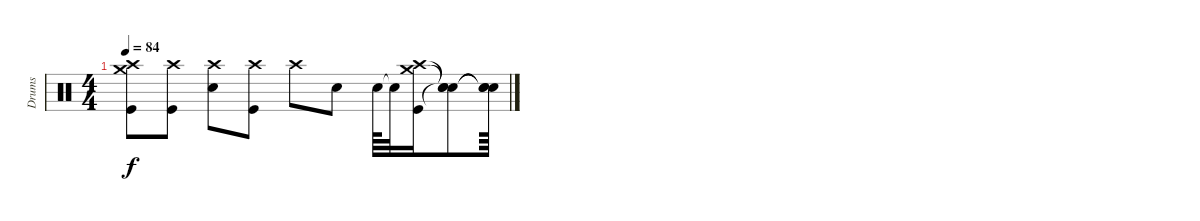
\track ("Drums" "Drums") {instrument percussion}
\staff {score}
\articulation defaults
\ts (4 4)
\tempo 84
\clef neutral
\ks c
("Crash medium (hit)" "Crash high (hit)" "Kick (hit)").8{dy f} ("Crash high (hit)" "Kick (hit)").8 ("Crash high (hit)" "Snare (hit) 2").8 ("Crash high (hit)" "Kick (hit)").8 "Crash high (hit)".8 "Snare (hit) 2".8 "Snare (hit) 2".64 "Snare (hit)"{t}.32 ("Crash medium (hit)" "Crash high (hit)" "Kick (hit)").16 ("Snare (hit)"{t} "Snare (hit)"{t} "Snare (hit)"{t}).8 ("Snare (hit)"{t} "Snare (hit)"{t} "Snare (hit)"{t}).64
